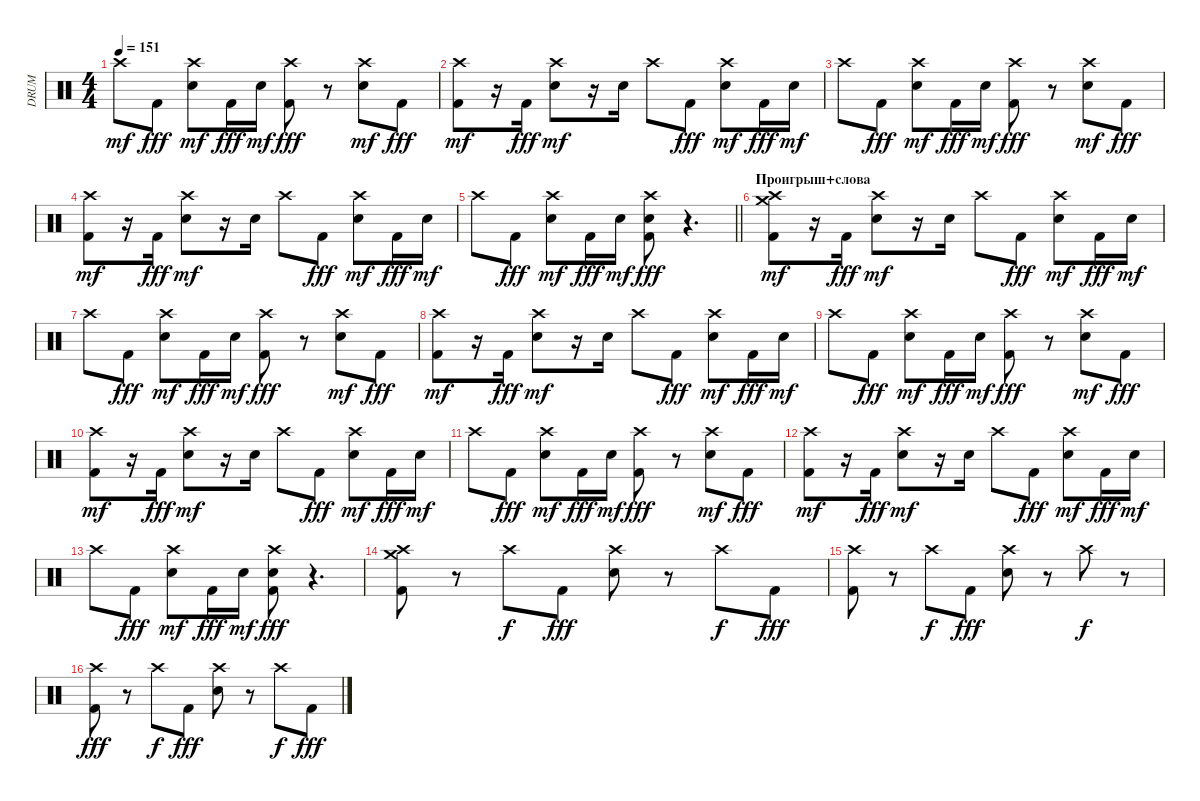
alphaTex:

\track ("DRUM" "DRUM") {instrument percussion}
\staff {score}
\articulation defaults
\ts (4 4)
\tempo 151
\clef neutral
\ks c "Crash high (hit)".8{dy mf} "Kick (hit) 2".8{dy fff}
("Electric Snare (hit)" "Crash high (hit)").8{dy mf} "Kick (hit) 2".16{dy fff} "Electric Snare (hit)".16{dy mf} ("Crash high (hit)" "Kick (hit) 2").8{dy fff} r.8 ("Electric Snare (hit)" "Crash high (hit)").8{dy mf} "Kick (hit) 2".8{dy fff} |
("Kick (hit) 2" "Crash high (hit)").8{dy mf} r.16 "Kick (hit) 2".16{dy fff} ("Electric Snare (hit)" "Crash high (hit)").8{dy mf} r.16 "Electric Snare (hit)".16 "Crash high (hit)".8 "Kick (hit) 2".8{dy fff} ("Electric Snare (hit)" "Crash high (hit)").8{dy mf} "Kick (hit) 2".16{dy fff} "Electric Snare (hit)".16{dy mf} |
"Crash high (hit)".8 "Kick (hit) 2".8{dy fff} ("Electric Snare (hit)" "Crash high (hit)").8{dy mf} "Kick (hit) 2".16{dy fff} "Electric Snare (hit)".16{dy mf} ("Crash high (hit)" "Kick (hit) 2").8{dy fff} r.8 ("Electric Snare (hit)" "Crash high (hit)").8{dy mf} "Kick (hit) 2".8{dy fff} |
("Kick (hit) 2" "Crash high (hit)").8{dy mf} r.16 "Kick (hit) 2".16{dy fff} ("Electric Snare (hit)" "Crash high (hit)").8{dy mf} r.16 "Electric Snare (hit)".16 "Crash high (hit)".8 "Kick (hit) 2".8{dy fff} ("Electric Snare (hit)" "Crash high (hit)").8{dy mf} "Kick (hit) 2".16{dy fff} "Electric Snare (hit)".16{dy mf} |
\barLineRight lightlight "Crash high (hit)".8 "Kick (hit) 2".8{dy fff}
("Electric Snare (hit)" "Crash high (hit)").8{dy mf} "Kick (hit) 2".16{dy fff} "Electric Snare (hit)".16{dy mf} ("Electric Snare (hit)" "Crash high (hit)" "Kick (hit) 2").8{dy fff} r.4{d} |
\section ("" "Проигрыш+слова")
("Crash medium (hit)" "Kick (hit) 2" "Crash high (hit)").8{dy mf} r.16 "Kick (hit) 2".16{dy fff} ("Electric Snare (hit)" "Crash high (hit)").8{dy mf} r.16 "Electric Snare (hit)".16 "Crash high (hit)".8 "Kick (hit) 2".8{dy fff} ("Electric Snare (hit)" "Crash high (hit)").8{dy mf} "Kick (hit) 2".16{dy fff} "Electric Snare (hit)".16{dy mf} |
"Crash high (hit)".8 "Kick (hit) 2".8{dy fff} ("Electric Snare (hit)" "Crash high (hit)").8{dy mf} "Kick (hit) 2".16{dy fff} "Electric Snare (hit)".16{dy mf} ("Crash high (hit)" "Kick (hit) 2").8{dy fff} r.8 ("Electric Snare (hit)" "Crash high (hit)").8{dy mf} "Kick (hit) 2".8{dy fff} |
("Kick (hit) 2" "Crash high (hit)").8{dy mf} r.16 "Kick (hit) 2".16{dy fff} ("Electric Snare (hit)" "Crash high (hit)").8{dy mf} r.16 "Electric Snare (hit)".16 "Crash high (hit)".8 "Kick (hit) 2".8{dy fff} ("Electric Snare (hit)" "Crash high (hit)").8{dy mf} "Kick (hit) 2".16{dy fff} "Electric Snare (hit)".16{dy mf} |
"Crash high (hit)".8 "Kick (hit) 2".8{dy fff} ("Electric Snare (hit)" "Crash high (hit)").8{dy mf} "Kick (hit) 2".16{dy fff} "Electric Snare (hit)".16{dy mf} ("Crash high (hit)" "Kick (hit) 2").8{dy fff} r.8 ("Electric Snare (hit)" "Crash high (hit)").8{dy mf} "Kick (hit) 2".8{dy fff} |
("Kick (hit) 2" "Crash high (hit)").8{dy mf} r.16 "Kick (hit) 2".16{dy fff} ("Electric Snare (hit)" "Crash high (hit)").8{dy mf} r.16 "Electric Snare (hit)".16 "Crash high (hit)".8 "Kick (hit) 2".8{dy fff} ("Electric Snare (hit)" "Crash high (hit)").8{dy mf} "Kick (hit) 2".16{dy fff} "Electric Snare (hit)".16{dy mf} |
"Crash high (hit)".8 "Kick (hit) 2".8{dy fff} ("Electric Snare (hit)" "Crash high (hit)").8{dy mf} "Kick (hit) 2".16{dy fff} "Electric Snare (hit)".16{dy mf} ("Crash high (hit)" "Kick (hit) 2").8{dy fff} r.8 ("Electric Snare (hit)" "Crash high (hit)").8{dy mf} "Kick (hit) 2".8{dy fff} |
("Kick (hit) 2" "Crash high (hit)").8{dy mf} r.16 "Kick (hit) 2".16{dy fff} ("Electric Snare (hit)" "Crash high (hit)").8{dy mf} r.16 "Electric Snare (hit)".16 "Crash high (hit)".8 "Kick (hit) 2".8{dy fff} ("Electric Snare (hit)" "Crash high (hit)").8{dy mf} "Kick (hit) 2".16{dy fff} "Electric Snare (hit)".16{dy mf} |
"Crash high (hit)".8 "Kick (hit) 2".8{dy fff} ("Electric Snare (hit)" "Crash high (hit)").8{dy mf} "Kick (hit) 2".16{dy fff} "Electric Snare (hit)".16{dy mf} ("Electric Snare (hit)" "Crash high (hit)" "Kick (hit) 2").8{dy fff} r.4{d} |
("Crash medium (hit)" "Kick (hit) 2" "Crash high (hit)").8 r.8 "Crash high (hit)".8{dy f} "Kick (hit) 2".8{dy fff} ("Crash high (hit)" "Snare (hit) 2").8 r.8 "Crash high (hit)".8{dy f} "Kick (hit) 2".8{dy fff} |
("Kick (hit) 2" "Crash high (hit)").8 r.8 "Crash high (hit)".8{dy f} "Kick (hit) 2".8{dy fff} ("Crash high (hit)" "Snare (hit) 2").8 r.8 "Crash high (hit)".8{dy f} r.8 |
("Kick (hit) 2" "Crash high (hit)").8{dy fff} r.8 "Crash high (hit)".8{dy f} "Kick (hit) 2".8{dy fff} ("Crash high (hit)" "Snare (hit) 2").8 r.8 "Crash high (hit)".8{dy f} "Kick (hit) 2".8{dy fff}
